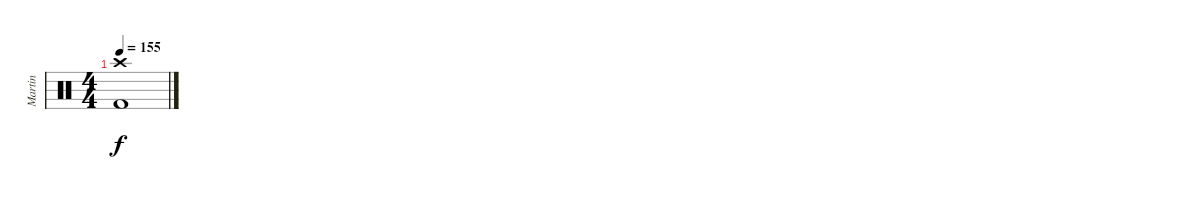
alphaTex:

\track ("Martin" "Martin") {instrument percussion}
\staff {score}
\articulation defaults
\ts (4 4)
\tempo 155
\clef neutral
\ks c
("Kick (hit) 2" "Crash high (hit)").1{dy f}
